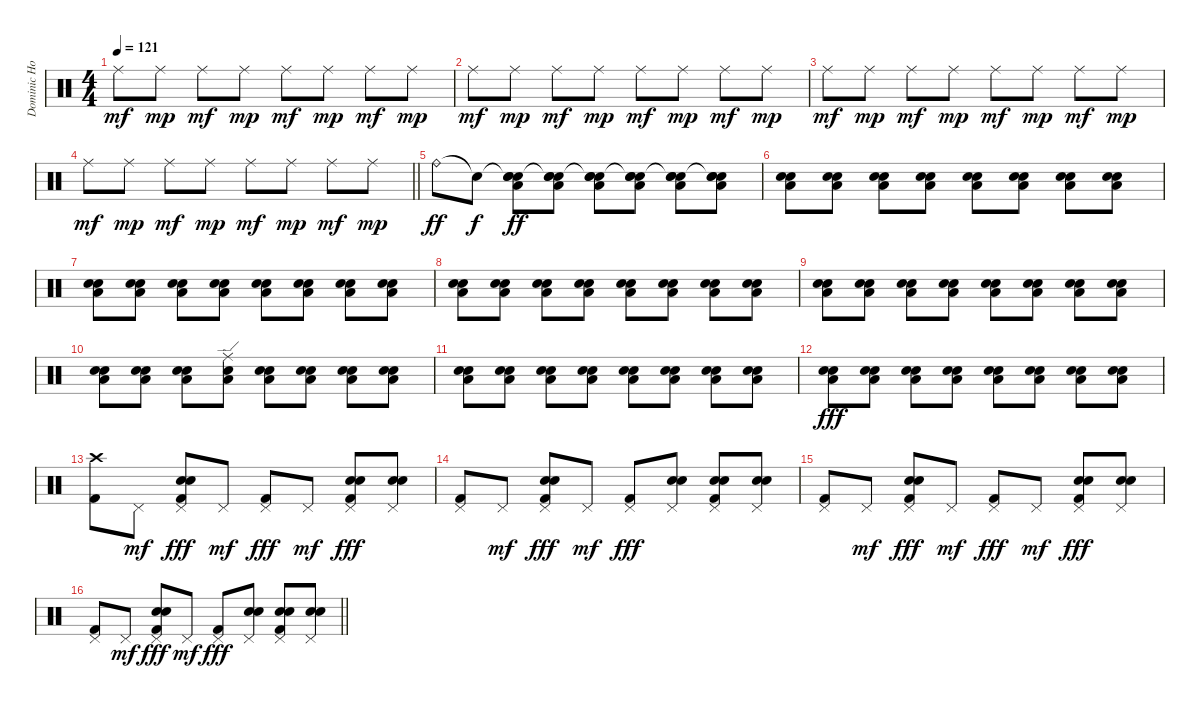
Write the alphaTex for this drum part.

\track ("Dominic Howard" "Dominic Ho") {instrument percussion}
\staff {score}
\articulation defaults
\ts (4 4)
\tempo 121
\clef neutral
\ks c "Ride (middle)".8{dy mf} "Ride (middle)".8{dy mp} "Ride (middle)".8{dy mf} "Ride (middle)".8{dy mp} "Ride (middle)".8{dy mf} "Ride (middle)".8{dy mp} "Ride (middle)".8{dy mf} "Ride (middle)".8{dy mp}
|
"Ride (middle)".8{dy mf} "Ride (middle)".8{dy mp} "Ride (middle)".8{dy mf} "Ride (middle)".8{dy mp} "Ride (middle)".8{dy mf} "Ride (middle)".8{dy mp} "Ride (middle)".8{dy mf} "Ride (middle)".8{dy mp} |
"Ride (middle)".8{dy mf} "Ride (middle)".8{dy mp} "Ride (middle)".8{dy mf} "Ride (middle)".8{dy mp} "Ride (middle)".8{dy mf} "Ride (middle)".8{dy mp} "Ride (middle)".8{dy mf} "Ride (middle)".8{dy mp} |
\barLineRight lightlight "Ride (middle)".8{dy mf} "Ride (middle)".8{dy mp} "Ride (middle)".8{dy mf} "Ride (middle)".8{dy mp} "Ride (middle)".8{dy mf} "Ride (middle)".8{dy mp} "Ride (middle)".8{dy mf} "Ride (middle)".8{dy mp}
|
"Ride (bell)".8{dy ff} "Snare (hit)"{t}.8{dy f volume 2} ("Snare (hit)"{t} "Hand Clap (hit)" "Electric Snare (hit)" "Low Tom (hit)").8{dy ff volume 5} ("Snare (hit)"{t} "Hand Clap (hit)" "Electric Snare (hit)" "Low Tom (hit)").8 ("Snare (hit)"{t} "Hand Clap (hit)" "Electric Snare (hit)" "Low Tom (hit)").8 ("Snare (hit)"{t} "Hand Clap (hit)" "Electric Snare (hit)" "Low Tom (hit)").8 ("Snare (hit)"{t} "Hand Clap (hit)" "Electric Snare (hit)" "Low Tom (hit)").8 ("Snare (hit)"{t} "Hand Clap (hit)" "Electric Snare (hit)" "Low Tom (hit)").8 |
("Hand Clap (hit)" "Electric Snare (hit)" "Low Tom (hit)").8 ("Hand Clap (hit)" "Electric Snare (hit)" "Low Tom (hit)").8 ("Hand Clap (hit)" "Electric Snare (hit)" "Low Tom (hit)").8 ("Hand Clap (hit)" "Electric Snare (hit)" "Low Tom (hit)").8 ("Hand Clap (hit)" "Electric Snare (hit)" "Low Tom (hit)").8 ("Hand Clap (hit)" "Electric Snare (hit)" "Low Tom (hit)").8 ("Hand Clap (hit)" "Electric Snare (hit)" "Low Tom (hit)").8 ("Hand Clap (hit)" "Electric Snare (hit)" "Low Tom (hit)").8 |
("Hand Clap (hit)" "Electric Snare (hit)" "Low Tom (hit)").8 ("Hand Clap (hit)" "Electric Snare (hit)" "Low Tom (hit)").8 ("Hand Clap (hit)" "Electric Snare (hit)" "Low Tom (hit)").8 ("Hand Clap (hit)" "Electric Snare (hit)" "Low Tom (hit)").8 ("Hand Clap (hit)" "Electric Snare (hit)" "Low Tom (hit)").8 ("Hand Clap (hit)" "Electric Snare (hit)" "Low Tom (hit)").8 ("Hand Clap (hit)" "Electric Snare (hit)" "Low Tom (hit)").8 ("Hand Clap (hit)" "Electric Snare (hit)" "Low Tom (hit)").8 |
("Hand Clap (hit)" "Electric Snare (hit)" "Low Tom (hit)").8 ("Hand Clap (hit)" "Electric Snare (hit)" "Low Tom (hit)").8 ("Hand Clap (hit)" "Electric Snare (hit)" "Low Tom (hit)").8 ("Hand Clap (hit)" "Electric Snare (hit)" "Low Tom (hit)").8 ("Hand Clap (hit)" "Electric Snare (hit)" "Low Tom (hit)").8 ("Hand Clap (hit)" "Electric Snare (hit)" "Low Tom (hit)").8 ("Hand Clap (hit)" "Electric Snare (hit)" "Low Tom (hit)").8 ("Hand Clap (hit)" "Electric Snare (hit)" "Low Tom (hit)").8 |
("Hand Clap (hit)" "Electric Snare (hit)" "Low Tom (hit)").8 ("Hand Clap (hit)" "Electric Snare (hit)" "Low Tom (hit)").8 ("Hand Clap (hit)" "Electric Snare (hit)" "Low Tom (hit)").8{volume 7} ("Hand Clap (hit)" "Electric Snare (hit)" "Low Tom (hit)").8 ("Hand Clap (hit)" "Electric Snare (hit)" "Low Tom (hit)").8 ("Hand Clap (hit)" "Electric Snare (hit)" "Low Tom (hit)").8 ("Hand Clap (hit)" "Electric Snare (hit)" "Low Tom (hit)").8 ("Hand Clap (hit)" "Electric Snare (hit)" "Low Tom (hit)").8 |
("Hand Clap (hit)" "Electric Snare (hit)" "Low Tom (hit)").8 ("Hand Clap (hit)" "Electric Snare (hit)" "Low Tom (hit)").8 ("Hand Clap (hit)" "Electric Snare (hit)" "Low Tom (hit)").8 ("Ride (edge)" "Electric Snare (hit)" "Low Tom (hit)").8 ("Hand Clap (hit)" "Electric Snare (hit)" "Low Tom (hit)").8 ("Hand Clap (hit)" "Electric Snare (hit)" "Low Tom (hit)").8 ("Hand Clap (hit)" "Electric Snare (hit)" "Low Tom (hit)").8 ("Hand Clap (hit)" "Electric Snare (hit)" "Low Tom (hit)").8 |
("Hand Clap (hit)" "Electric Snare (hit)" "Low Tom (hit)").8 ("Hand Clap (hit)" "Electric Snare (hit)" "Low Tom (hit)").8 ("Hand Clap (hit)" "Electric Snare (hit)" "Low Tom (hit)").8 ("Hand Clap (hit)" "Electric Snare (hit)" "Low Tom (hit)").8 ("Hand Clap (hit)" "Electric Snare (hit)" "Low Tom (hit)").8 ("Hand Clap (hit)" "Electric Snare (hit)" "Low Tom (hit)").8 ("Hand Clap (hit)" "Electric Snare (hit)" "Low Tom (hit)").8 ("Hand Clap (hit)" "Electric Snare (hit)" "Low Tom (hit)").8 |
("Hand Clap (hit)" "Electric Snare (hit)" "Low Tom (hit)").8{dy fff} ("Hand Clap (hit)" "Electric Snare (hit)" "Low Tom (hit)").8 ("Hand Clap (hit)" "Electric Snare (hit)" "Low Tom (hit)").8 ("Hand Clap (hit)" "Electric Snare (hit)" "Low Tom (hit)").8 ("Hand Clap (hit)" "Electric Snare (hit)" "Low Tom (hit)").8 ("Hand Clap (hit)" "Electric Snare (hit)" "Low Tom (hit)").8 ("Hand Clap (hit)" "Electric Snare (hit)" "Low Tom (hit)").8 ("Hand Clap (hit)" "Electric Snare (hit)" "Low Tom (hit)").8{volume 8} |
("Crash high (hit)" "Kick (hit) 2").8 "Pedal Hi-Hat (hit)".8{dy mf} ("Pedal Hi-Hat (hit)" "Hand Clap (hit)" "Electric Snare (hit)" "Kick (hit) 2").8{dy fff} "Pedal Hi-Hat (hit)".8{dy mf} ("Pedal Hi-Hat (hit)" "Kick (hit) 2").8{dy fff} "Pedal Hi-Hat (hit)".8{dy mf} ("Pedal Hi-Hat (hit)" "Hand Clap (hit)" "Electric Snare (hit)" "Kick (hit) 2").8{dy fff} ("Pedal Hi-Hat (hit)" "Hand Clap (hit)" "Electric Snare (hit)").8 |
("Pedal Hi-Hat (hit)" "Kick (hit) 2").8 "Pedal Hi-Hat (hit)".8{dy mf} ("Pedal Hi-Hat (hit)" "Hand Clap (hit)" "Electric Snare (hit)" "Kick (hit) 2").8{dy fff} "Pedal Hi-Hat (hit)".8{dy mf} ("Pedal Hi-Hat (hit)" "Kick (hit) 2").8{dy fff} ("Pedal Hi-Hat (hit)" "Hand Clap (hit)" "Electric Snare (hit)").8 ("Pedal Hi-Hat (hit)" "Hand Clap (hit)" "Electric Snare (hit)" "Kick (hit) 2").8 ("Pedal Hi-Hat (hit)" "Hand Clap (hit)" "Electric Snare (hit)").8 |
("Pedal Hi-Hat (hit)" "Kick (hit) 2").8 "Pedal Hi-Hat (hit)".8{dy mf} ("Pedal Hi-Hat (hit)" "Hand Clap (hit)" "Electric Snare (hit)" "Kick (hit) 2").8{dy fff} "Pedal Hi-Hat (hit)".8{dy mf} ("Pedal Hi-Hat (hit)" "Kick (hit) 2").8{dy fff} "Pedal Hi-Hat (hit)".8{dy mf} ("Pedal Hi-Hat (hit)" "Hand Clap (hit)" "Electric Snare (hit)" "Kick (hit) 2").8{dy fff} ("Pedal Hi-Hat (hit)" "Hand Clap (hit)" "Electric Snare (hit)").8 |
\barLineRight lightlight
("Pedal Hi-Hat (hit)" "Kick (hit) 2").8 "Pedal Hi-Hat (hit)".8{dy mf} ("Pedal Hi-Hat (hit)" "Hand Clap (hit)" "Electric Snare (hit)" "Kick (hit) 2").8{dy fff} "Pedal Hi-Hat (hit)".8{dy mf} ("Pedal Hi-Hat (hit)" "Kick (hit) 2").8{dy fff} ("Pedal Hi-Hat (hit)" "Hand Clap (hit)" "Electric Snare (hit)").8 ("Pedal Hi-Hat (hit)" "Hand Clap (hit)" "Electric Snare (hit)" "Kick (hit) 2").8 ("Pedal Hi-Hat (hit)" "Hand Clap (hit)" "Electric Snare (hit)").8
